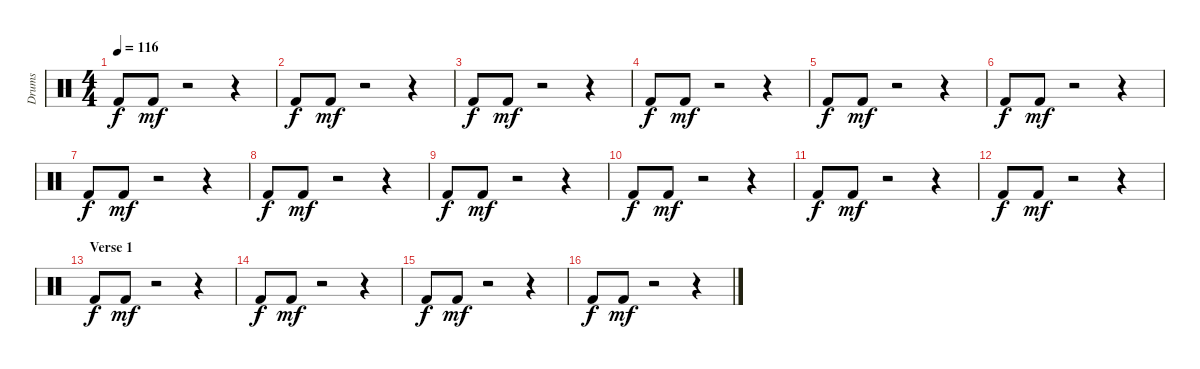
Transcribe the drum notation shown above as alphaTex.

\track ("Drums" "Drums") {instrument percussion}
\staff {score}
\articulation defaults
\ts (4 4)
\tempo 116
\clef neutral
\ks c "Kick (hit) 2".8{dy f} "Kick (hit) 2".8{dy mf}
r.2 r.4 |
"Kick (hit) 2".8{dy f} "Kick (hit) 2".8{dy mf} r.2 r.4 |
"Kick (hit) 2".8{dy f} "Kick (hit) 2".8{dy mf} r.2 r.4 |
"Kick (hit) 2".8{dy f} "Kick (hit) 2".8{dy mf} r.2 r.4 |
"Kick (hit) 2".8{dy f} "Kick (hit) 2".8{dy mf} r.2 r.4 |
"Kick (hit) 2".8{dy f} "Kick (hit) 2".8{dy mf} r.2 r.4 |
"Kick (hit) 2".8{dy f} "Kick (hit) 2".8{dy mf} r.2 r.4 |
"Kick (hit) 2".8{dy f} "Kick (hit) 2".8{dy mf} r.2 r.4 |
"Kick (hit) 2".8{dy f} "Kick (hit) 2".8{dy mf} r.2 r.4 |
"Kick (hit) 2".8{dy f} "Kick (hit) 2".8{dy mf} r.2 r.4 |
"Kick (hit) 2".8{dy f} "Kick (hit) 2".8{dy mf} r.2 r.4 |
"Kick (hit) 2".8{dy f} "Kick (hit) 2".8{dy mf} r.2 r.4 |
\section ("" "Verse 1")
"Kick (hit) 2".8{dy f} "Kick (hit) 2".8{dy mf} r.2 r.4 |
"Kick (hit) 2".8{dy f} "Kick (hit) 2".8{dy mf} r.2 r.4 |
"Kick (hit) 2".8{dy f} "Kick (hit) 2".8{dy mf} r.2 r.4 |
"Kick (hit) 2".8{dy f} "Kick (hit) 2".8{dy mf} r.2 r.4
